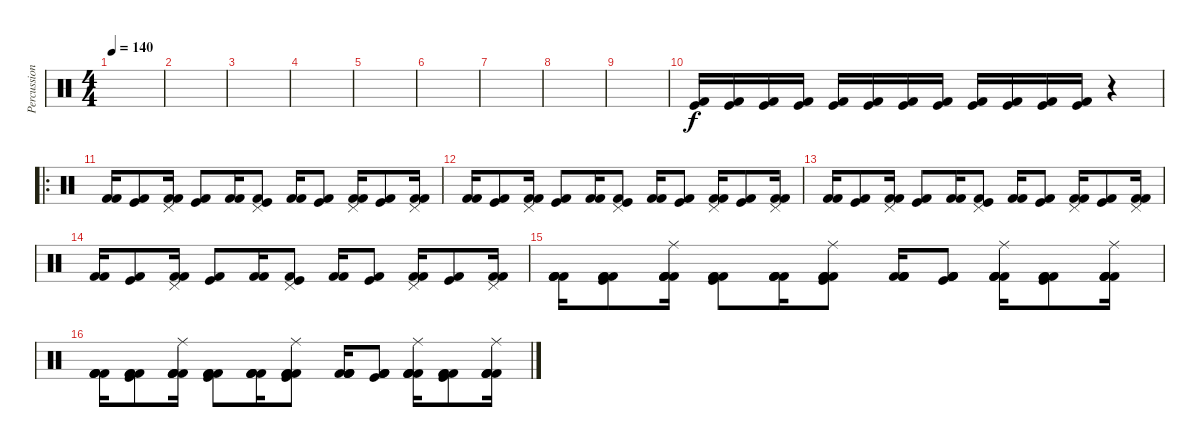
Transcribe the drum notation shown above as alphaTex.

\track ("Percussion" "Percussion") {instrument percussion}
\staff {score}
\articulation defaults
\ts (4 4)
\tempo 140
\clef neutral
\ks c
|
|
|
|
|
|
|
|
|
("Kick (hit)" "Kick (hit) 2").16 ("Kick (hit)" "Kick (hit) 2").16 ("Kick (hit)" "Kick (hit) 2").16 ("Kick (hit)" "Kick (hit) 2").16 ("Kick (hit)" "Kick (hit) 2").16 ("Kick (hit)" "Kick (hit) 2").16 ("Kick (hit)" "Kick (hit) 2").16 ("Kick (hit)" "Kick (hit) 2").16 ("Kick (hit)" "Kick (hit) 2").16 ("Kick (hit)" "Kick (hit) 2").16 ("Kick (hit)" "Kick (hit) 2").16 ("Kick (hit)" "Kick (hit) 2").16 r.4 |
\ro
("Kick (hit) 2" "Kick (hit) 2").16 ("Kick (hit) 2" "Kick (hit)").8 ("Kick (hit) 2" "Kick (hit) 2" "Pedal Hi-Hat (hit)").16 ("Kick (hit) 2" "Kick (hit)").8 ("Kick (hit) 2" "Kick (hit) 2").16 ("Kick (hit) 2" "Kick (hit)" "Pedal Hi-Hat (hit)").8 ("Kick (hit) 2" "Kick (hit) 2").16 ("Kick (hit) 2" "Kick (hit)").8 ("Kick (hit) 2" "Kick (hit) 2" "Pedal Hi-Hat (hit)").16 ("Kick (hit) 2" "Kick (hit)").8 ("Kick (hit) 2" "Kick (hit) 2" "Pedal Hi-Hat (hit)").16 |
("Kick (hit) 2" "Kick (hit) 2").16 ("Kick (hit) 2" "Kick (hit)").8 ("Kick (hit) 2" "Kick (hit) 2" "Pedal Hi-Hat (hit)").16 ("Kick (hit) 2" "Kick (hit)").8 ("Kick (hit) 2" "Kick (hit) 2").16 ("Kick (hit) 2" "Kick (hit)" "Pedal Hi-Hat (hit)").8 ("Kick (hit) 2" "Kick (hit) 2").16 ("Kick (hit) 2" "Kick (hit)").8 ("Kick (hit) 2" "Kick (hit) 2" "Pedal Hi-Hat (hit)").16 ("Kick (hit) 2" "Kick (hit)").8 ("Kick (hit) 2" "Kick (hit) 2" "Pedal Hi-Hat (hit)").16 |
("Kick (hit) 2" "Kick (hit) 2").16 ("Kick (hit) 2" "Kick (hit)").8 ("Kick (hit) 2" "Kick (hit) 2" "Pedal Hi-Hat (hit)").16 ("Kick (hit) 2" "Kick (hit)").8 ("Kick (hit) 2" "Kick (hit) 2").16 ("Kick (hit) 2" "Kick (hit)" "Pedal Hi-Hat (hit)").8 ("Kick (hit) 2" "Kick (hit) 2").16 ("Kick (hit) 2" "Kick (hit)").8 ("Kick (hit) 2" "Kick (hit) 2" "Pedal Hi-Hat (hit)").16 ("Kick (hit) 2" "Kick (hit)").8 ("Kick (hit) 2" "Kick (hit) 2" "Pedal Hi-Hat (hit)").16 |
("Kick (hit) 2" "Kick (hit) 2").16 ("Kick (hit) 2" "Kick (hit)").8 ("Kick (hit) 2" "Kick (hit) 2" "Pedal Hi-Hat (hit)").16 ("Kick (hit) 2" "Kick (hit)").8 ("Kick (hit) 2" "Kick (hit) 2").16 ("Kick (hit) 2" "Kick (hit)" "Pedal Hi-Hat (hit)").8 ("Kick (hit) 2" "Kick (hit) 2").16 ("Kick (hit) 2" "Kick (hit)").8 ("Kick (hit) 2" "Kick (hit) 2" "Pedal Hi-Hat (hit)").16 ("Kick (hit) 2" "Kick (hit)").8 ("Kick (hit) 2" "Kick (hit) 2" "Pedal Hi-Hat (hit)").16 |
("Kick (hit) 2" "Kick (hit) 2" "Kick (hit) 2" "Kick (hit) 2").16 ("Kick (hit) 2" "Kick (hit)" "Kick (hit) 2" "Kick (hit) 2").8 ("Kick (hit) 2" "Kick (hit) 2" "Ride (middle)" "Kick (hit) 2" "Kick (hit) 2").16 ("Kick (hit) 2" "Kick (hit)" "Kick (hit) 2" "Kick (hit) 2").8 ("Kick (hit) 2" "Kick (hit) 2" "Kick (hit) 2" "Kick (hit) 2").16 ("Kick (hit) 2" "Kick (hit)" "Ride (middle)" "Kick (hit) 2" "Kick (hit) 2").8 ("Kick (hit) 2" "Kick (hit) 2" "Kick (hit) 2" "Kick (hit) 2").16 ("Kick (hit) 2" "Kick (hit)" "Kick (hit) 2" "Kick (hit) 2").8 ("Kick (hit) 2" "Kick (hit) 2" "Ride (middle)" "Kick (hit) 2" "Kick (hit) 2").16 ("Kick (hit) 2" "Kick (hit)" "Kick (hit) 2" "Kick (hit) 2").8 ("Kick (hit) 2" "Kick (hit) 2" "Ride (middle)" "Kick (hit) 2" "Kick (hit) 2").16 |
("Kick (hit) 2" "Kick (hit) 2" "Kick (hit) 2" "Kick (hit) 2").16 ("Kick (hit) 2" "Kick (hit)" "Kick (hit) 2" "Kick (hit) 2").8 ("Kick (hit) 2" "Kick (hit) 2" "Ride (middle)" "Kick (hit) 2" "Kick (hit) 2").16 ("Kick (hit) 2" "Kick (hit)" "Kick (hit) 2" "Kick (hit) 2").8 ("Kick (hit) 2" "Kick (hit) 2" "Kick (hit) 2" "Kick (hit) 2").16 ("Kick (hit) 2" "Kick (hit)" "Ride (middle)" "Kick (hit) 2" "Kick (hit) 2").8 ("Kick (hit) 2" "Kick (hit) 2" "Kick (hit) 2" "Kick (hit) 2").16 ("Kick (hit) 2" "Kick (hit)" "Kick (hit) 2" "Kick (hit) 2").8 ("Kick (hit) 2" "Kick (hit) 2" "Ride (middle)" "Kick (hit) 2" "Kick (hit) 2").16 ("Kick (hit) 2" "Kick (hit)" "Kick (hit) 2" "Kick (hit) 2").8 ("Kick (hit) 2" "Kick (hit) 2" "Ride (middle)" "Kick (hit) 2" "Kick (hit) 2").16
